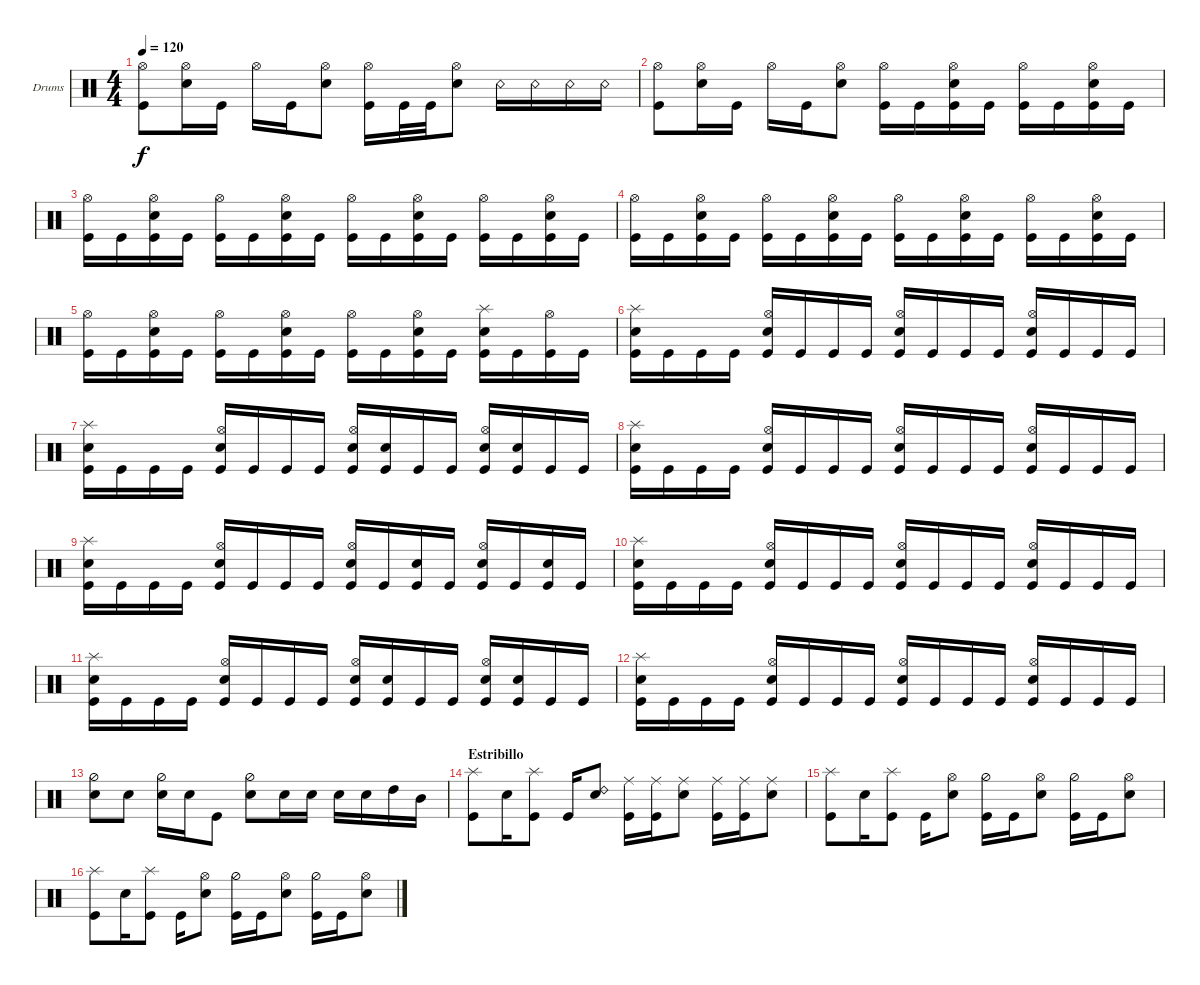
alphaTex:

\bracketExtendMode groupsimilarinstruments
\firstSystemTrackNameOrientation horizontal
\otherSystemsTrackNameOrientation horizontal
\track ("Drumkit" "Drums") {instrument percussion}
\staff {score}
\articulation defaults
\ts (4 4)
\tempo 120
\clef neutral
\ks c
("Kick (hit)" "Hi-Hat (open)").8{dy f} ("Snare (hit) 2" "Hi-Hat (open)").16 "Kick (hit)".16 "Hi-Hat (open)".16 "Kick (hit)".16 ("Hi-Hat (open)" "Snare (hit) 2").8 ("Hi-Hat (open)" "Kick (hit)").16 "Kick (hit)".32 "Kick (hit)".32 ("Hi-Hat (open)" "Snare (hit) 2").8 "Snare (rim shot)".16 "Snare (rim shot)".16 "Snare (rim shot)".16 "Snare (rim shot)".16 |
("Kick (hit)" "Hi-Hat (open)").8 ("Snare (hit) 2" "Hi-Hat (open)").16 "Kick (hit)".16 "Hi-Hat (open)".16 "Kick (hit)".16 ("Hi-Hat (open)" "Snare (hit) 2").8 ("Kick (hit)" "Hi-Hat (open)").16 "Kick (hit)".16 ("Kick (hit)" "Snare (hit) 2" "Hi-Hat (open)").16 "Kick (hit)".16 ("Kick (hit)" "Hi-Hat (open)").16 "Kick (hit)".16 ("Kick (hit)" "Snare (hit) 2" "Hi-Hat (open)").16 "Kick (hit)".16 |
("Kick (hit)" "Hi-Hat (open)").16 "Kick (hit)".16 ("Kick (hit)" "Snare (hit) 2" "Hi-Hat (open)").16 "Kick (hit)".16 ("Kick (hit)" "Hi-Hat (open)").16 "Kick (hit)".16 ("Kick (hit)" "Snare (hit) 2" "Hi-Hat (open)").16 "Kick (hit)".16 ("Kick (hit)" "Hi-Hat (open)").16 "Kick (hit)".16 ("Kick (hit)" "Snare (hit) 2" "Hi-Hat (open)").16 "Kick (hit)".16 ("Kick (hit)" "Hi-Hat (open)").16 "Kick (hit)".16 ("Kick (hit)" "Snare (hit) 2" "Hi-Hat (open)").16 "Kick (hit)".16 |
("Kick (hit)" "Hi-Hat (open)").16 "Kick (hit)".16 ("Kick (hit)" "Snare (hit) 2" "Hi-Hat (open)").16 "Kick (hit)".16 ("Kick (hit)" "Hi-Hat (open)").16 "Kick (hit)".16 ("Kick (hit)" "Snare (hit) 2" "Hi-Hat (open)").16 "Kick (hit)".16 ("Kick (hit)" "Hi-Hat (open)").16 "Kick (hit)".16 ("Kick (hit)" "Snare (hit) 2" "Hi-Hat (open)").16 "Kick (hit)".16 ("Kick (hit)" "Hi-Hat (open)").16 "Kick (hit)".16 ("Kick (hit)" "Snare (hit) 2" "Hi-Hat (open)").16 "Kick (hit)".16 |
("Kick (hit)" "Hi-Hat (open)").16 "Kick (hit)".16 ("Kick (hit)" "Snare (hit) 2" "Hi-Hat (open)").16 "Kick (hit)".16 ("Kick (hit)" "Hi-Hat (open)").16 "Kick (hit)".16 ("Kick (hit)" "Snare (hit) 2" "Hi-Hat (open)").16 "Kick (hit)".16 ("Kick (hit)" "Hi-Hat (open)").16 "Kick (hit)".16 ("Kick (hit)" "Snare (hit) 2" "Hi-Hat (open)").16 "Kick (hit)".16 ("Kick (hit)" "Snare (hit) 2" "Splash (hit)").16 "Kick (hit)".16 ("Kick (hit)" "Hi-Hat (open)").16 "Kick (hit)".16 |
("Kick (hit)" "Snare (hit) 2" "Splash (hit)").16 "Kick (hit)".16 "Kick (hit)".16 "Kick (hit)".16 ("Kick (hit)" "Snare (hit) 2" "Hi-Hat (open)").16 "Kick (hit)".16 "Kick (hit)".16 "Kick (hit)".16 ("Kick (hit)" "Snare (hit) 2" "Hi-Hat (open)").16 "Kick (hit)".16 "Kick (hit)".16 "Kick (hit)".16 ("Kick (hit)" "Snare (hit) 2" "Hi-Hat (open)").16 "Kick (hit)".16 "Kick (hit)".16 "Kick (hit)".16 |
("Kick (hit)" "Snare (hit) 2" "Splash (hit)").16 "Kick (hit)".16 "Kick (hit)".16 "Kick (hit)".16 ("Kick (hit)" "Snare (hit) 2" "Hi-Hat (open)").16 "Kick (hit)".16 "Kick (hit)".16 "Kick (hit)".16 ("Kick (hit)" "Snare (hit) 2" "Hi-Hat (open)").16 ("Kick (hit)" "Snare (hit) 2").16 "Kick (hit)".16 "Kick (hit)".16 ("Kick (hit)" "Snare (hit) 2" "Hi-Hat (open)").16 ("Kick (hit)" "Snare (hit) 2").16 "Kick (hit)".16 "Kick (hit)".16 |
("Kick (hit)" "Snare (hit) 2" "Splash (hit)").16 "Kick (hit)".16 "Kick (hit)".16 "Kick (hit)".16 ("Kick (hit)" "Snare (hit) 2" "Hi-Hat (open)").16 "Kick (hit)".16 "Kick (hit)".16 "Kick (hit)".16 ("Kick (hit)" "Snare (hit) 2" "Hi-Hat (open)").16 "Kick (hit)".16 "Kick (hit)".16 "Kick (hit)".16 ("Kick (hit)" "Snare (hit) 2" "Hi-Hat (open)").16 "Kick (hit)".16 "Kick (hit)".16 "Kick (hit)".16 |
("Kick (hit)" "Snare (hit) 2" "Splash (hit)").16 "Kick (hit)".16 "Kick (hit)".16 "Kick (hit)".16 ("Kick (hit)" "Snare (hit) 2" "Hi-Hat (open)").16 "Kick (hit)".16 "Kick (hit)".16 "Kick (hit)".16 ("Kick (hit)" "Snare (hit) 2" "Hi-Hat (open)").16 "Kick (hit)".16 ("Kick (hit)" "Snare (hit) 2").16 "Kick (hit)".16 ("Kick (hit)" "Snare (hit) 2" "Hi-Hat (open)").16 "Kick (hit)".16 ("Kick (hit)" "Snare (hit) 2").16 "Kick (hit)".16 |
("Kick (hit)" "Snare (hit) 2" "Splash (hit)").16 "Kick (hit)".16 "Kick (hit)".16 "Kick (hit)".16 ("Kick (hit)" "Snare (hit) 2" "Hi-Hat (open)").16 "Kick (hit)".16 "Kick (hit)".16 "Kick (hit)".16 ("Kick (hit)" "Snare (hit) 2" "Hi-Hat (open)").16 "Kick (hit)".16 "Kick (hit)".16 "Kick (hit)".16 ("Kick (hit)" "Snare (hit) 2" "Hi-Hat (open)").16 "Kick (hit)".16 "Kick (hit)".16 "Kick (hit)".16 |
("Kick (hit)" "Snare (hit) 2" "Splash (hit)").16 "Kick (hit)".16 "Kick (hit)".16 "Kick (hit)".16 ("Kick (hit)" "Snare (hit) 2" "Hi-Hat (open)").16 "Kick (hit)".16 "Kick (hit)".16 "Kick (hit)".16 ("Kick (hit)" "Snare (hit) 2" "Hi-Hat (open)").16 ("Kick (hit)" "Snare (hit) 2").16 "Kick (hit)".16 "Kick (hit)".16 ("Kick (hit)" "Snare (hit) 2" "Hi-Hat (open)").16 ("Kick (hit)" "Snare (hit) 2").16 "Kick (hit)".16 "Kick (hit)".16 |
("Kick (hit)" "Snare (hit) 2" "Splash (hit)").16 "Kick (hit)".16 "Kick (hit)".16 "Kick (hit)".16 ("Kick (hit)" "Snare (hit) 2" "Hi-Hat (open)").16 "Kick (hit)".16 "Kick (hit)".16 "Kick (hit)".16 ("Kick (hit)" "Snare (hit) 2" "Hi-Hat (open)").16 "Kick (hit)".16 "Kick (hit)".16 "Kick (hit)".16 ("Kick (hit)" "Snare (hit) 2" "Hi-Hat (open)").16 "Kick (hit)".16 "Kick (hit)".16 "Kick (hit)".16 |
("Snare (hit) 2" "Hi-Hat (half)").8 "Snare (hit) 2".8 ("Snare (hit) 2" "Hi-Hat (half)").16 "Snare (hit) 2".16 "Kick (hit)".8 ("Snare (hit) 2" "Hi-Hat (half)").8 "Snare (hit) 2".16 "Snare (hit) 2".16 "Snare (hit) 2".16 "Snare (hit) 2".16 "High Tom (hit)".16 "Mid Tom (hit)".16 |
\section ("" "Estribillo")
("Kick (hit)" "Splash (hit)").8 "Snare (hit) 2".16 ("Kick (hit)" "Splash (hit)").8 "Kick (hit)".16 ("Snare (hit) 2" "Ride (bell) 2").8 ("Kick (hit)" "Ride (middle)").16 ("Kick (hit)" "Ride (middle)").16 ("Snare (hit) 2" "Ride (middle)").8 ("Kick (hit)" "Ride (middle)").16 ("Kick (hit)" "Ride (middle)").16 ("Snare (hit) 2" "Ride (middle)").8 |
("Kick (hit)" "Splash (hit)").8 "Snare (hit) 2".16 ("Kick (hit)" "Splash (hit)").8 "Kick (hit)".16 ("Snare (hit) 2" "Hi-Hat (open)").8 ("Kick (hit)" "Hi-Hat (half)").16 "Kick (hit)".16 ("Snare (hit) 2" "Hi-Hat (open)").8 ("Kick (hit)" "Hi-Hat (half)").16 "Kick (hit)".16 ("Snare (hit) 2" "Hi-Hat (open)").8 |
("Kick (hit)" "Splash (hit)").8 "Snare (hit) 2".16 ("Kick (hit)" "Splash (hit)").8 "Kick (hit)".16 ("Snare (hit) 2" "Hi-Hat (open)").8 ("Kick (hit)" "Hi-Hat (half)").16 "Kick (hit)".16 ("Snare (hit) 2" "Hi-Hat (open)").8 ("Kick (hit)" "Hi-Hat (half)").16 "Kick (hit)".16 ("Snare (hit) 2" "Hi-Hat (open)").8
